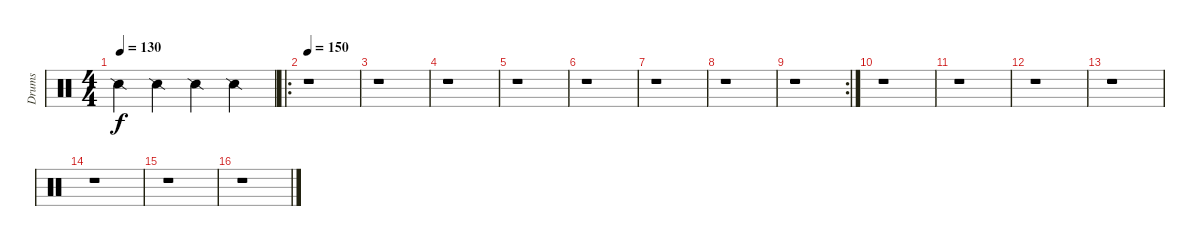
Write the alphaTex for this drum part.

\track ("Drums" "Drums") {instrument percussion}
\staff {score}
\articulation defaults
\ts (4 4)
\tempo 130
\clef neutral
\ks c "Snare (side stick) 2".4{dy f} "Snare (side stick) 2".4 "Snare (side stick) 2".4 "Snare (side stick) 2".4
|
\ro
\tempo 150
r.1 |
r.1 |
r.1 |
r.1 |
r.1 |
r.1 |
r.1 |
\rc 2
r.1 |
r.1 |
r.1 |
r.1 |
r.1 |
r.1 |
r.1 |
r.1
